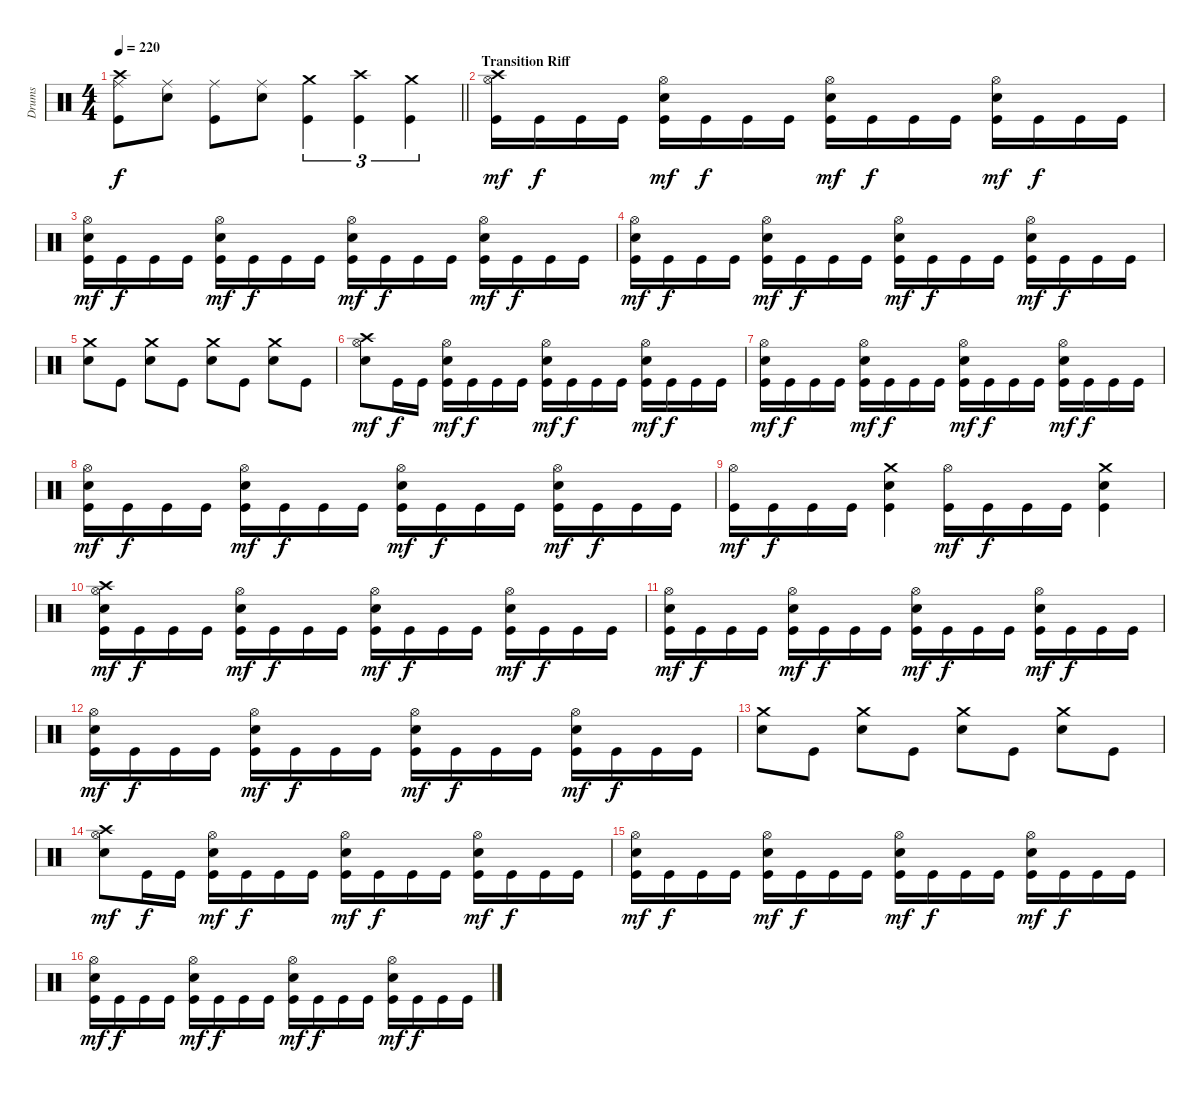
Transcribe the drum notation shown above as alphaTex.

\track ("Drums" "Drums") {instrument percussion}
\staff {score}
\articulation defaults
\ts (4 4)
\tempo 220
\clef neutral
\barLineRight lightlight
\ks c
("Crash high (hit)" "Ride (middle)" "Kick (hit)").8{dy f} ("Ride (middle)" "Electric Snare (hit)").8 ("Ride (middle)" "Kick (hit)").8 ("Ride (middle)" "Electric Snare (hit)").8 ("Crash medium (hit)" "Kick (hit)").4{tu (3 2)} ("Crash high (hit)" "Kick (hit)").4{tu (3 2)} ("Crash medium (hit)" "Kick (hit)").4{tu (3 2)} |
\section ("" "Transition Riff")
("Crash high (hit)" "Hi-Hat (open)" "Kick (hit)").16{dy mf} "Kick (hit)".16{dy f} "Kick (hit)".16 "Kick (hit)".16 ("Hi-Hat (open)" "Electric Snare (hit)" "Kick (hit)").16{dy mf} "Kick (hit)".16{dy f} "Kick (hit)".16 "Kick (hit)".16 ("Hi-Hat (open)" "Electric Snare (hit)" "Kick (hit)").16{dy mf} "Kick (hit)".16{dy f} "Kick (hit)".16 "Kick (hit)".16 ("Hi-Hat (open)" "Electric Snare (hit)" "Kick (hit)").16{dy mf} "Kick (hit)".16{dy f} "Kick (hit)".16 "Kick (hit)".16 |
("Hi-Hat (open)" "Electric Snare (hit)" "Kick (hit)").16{dy mf} "Kick (hit)".16{dy f} "Kick (hit)".16 "Kick (hit)".16 ("Hi-Hat (open)" "Electric Snare (hit)" "Kick (hit)").16{dy mf} "Kick (hit)".16{dy f} "Kick (hit)".16 "Kick (hit)".16 ("Hi-Hat (open)" "Electric Snare (hit)" "Kick (hit)").16{dy mf} "Kick (hit)".16{dy f} "Kick (hit)".16 "Kick (hit)".16 ("Hi-Hat (open)" "Electric Snare (hit)" "Kick (hit)").16{dy mf} "Kick (hit)".16{dy f} "Kick (hit)".16 "Kick (hit)".16 |
("Hi-Hat (open)" "Electric Snare (hit)" "Kick (hit)").16{dy mf} "Kick (hit)".16{dy f} "Kick (hit)".16 "Kick (hit)".16 ("Hi-Hat (open)" "Electric Snare (hit)" "Kick (hit)").16{dy mf} "Kick (hit)".16{dy f} "Kick (hit)".16 "Kick (hit)".16 ("Hi-Hat (open)" "Electric Snare (hit)" "Kick (hit)").16{dy mf} "Kick (hit)".16{dy f} "Kick (hit)".16 "Kick (hit)".16 ("Hi-Hat (open)" "Electric Snare (hit)" "Kick (hit)").16{dy mf} "Kick (hit)".16{dy f} "Kick (hit)".16 "Kick (hit)".16 |
("Crash medium (hit)" "Electric Snare (hit)").8 "Kick (hit)".8 ("Crash medium (hit)" "Electric Snare (hit)").8 "Kick (hit)".8 ("Crash medium (hit)" "Electric Snare (hit)").8 "Kick (hit)".8 ("Crash medium (hit)" "Electric Snare (hit)").8 "Kick (hit)".8 |
("Crash high (hit)" "Hi-Hat (open)" "Electric Snare (hit)").8{dy mf} "Kick (hit)".16{dy f} "Kick (hit)".16 ("Hi-Hat (open)" "Electric Snare (hit)" "Kick (hit)").16{dy mf} "Kick (hit)".16{dy f} "Kick (hit)".16 "Kick (hit)".16 ("Hi-Hat (open)" "Electric Snare (hit)" "Kick (hit)").16{dy mf} "Kick (hit)".16{dy f} "Kick (hit)".16 "Kick (hit)".16 ("Hi-Hat (open)" "Electric Snare (hit)" "Kick (hit)").16{dy mf} "Kick (hit)".16{dy f} "Kick (hit)".16 "Kick (hit)".16 |
("Hi-Hat (open)" "Electric Snare (hit)" "Kick (hit)").16{dy mf} "Kick (hit)".16{dy f} "Kick (hit)".16 "Kick (hit)".16 ("Hi-Hat (open)" "Electric Snare (hit)" "Kick (hit)").16{dy mf} "Kick (hit)".16{dy f} "Kick (hit)".16 "Kick (hit)".16 ("Hi-Hat (open)" "Electric Snare (hit)" "Kick (hit)").16{dy mf} "Kick (hit)".16{dy f} "Kick (hit)".16 "Kick (hit)".16 ("Hi-Hat (open)" "Electric Snare (hit)" "Kick (hit)").16{dy mf} "Kick (hit)".16{dy f} "Kick (hit)".16 "Kick (hit)".16 |
("Hi-Hat (open)" "Electric Snare (hit)" "Kick (hit)").16{dy mf} "Kick (hit)".16{dy f} "Kick (hit)".16 "Kick (hit)".16 ("Hi-Hat (open)" "Electric Snare (hit)" "Kick (hit)").16{dy mf} "Kick (hit)".16{dy f} "Kick (hit)".16 "Kick (hit)".16 ("Hi-Hat (open)" "Electric Snare (hit)" "Kick (hit)").16{dy mf} "Kick (hit)".16{dy f} "Kick (hit)".16 "Kick (hit)".16 ("Hi-Hat (open)" "Electric Snare (hit)" "Kick (hit)").16{dy mf} "Kick (hit)".16{dy f} "Kick (hit)".16 "Kick (hit)".16 |
("Hi-Hat (open)" "Kick (hit)").16{dy mf} "Kick (hit)".16{dy f} "Kick (hit)".16 "Kick (hit)".16 ("Crash medium (hit)" "Electric Snare (hit)" "Kick (hit)").4 ("Hi-Hat (open)" "Kick (hit)").16{dy mf} "Kick (hit)".16{dy f} "Kick (hit)".16 "Kick (hit)".16 ("Crash medium (hit)" "Electric Snare (hit)" "Kick (hit)").4 |
("Crash high (hit)" "Hi-Hat (open)" "Electric Snare (hit)" "Kick (hit)").16{dy mf} "Kick (hit)".16{dy f} "Kick (hit)".16 "Kick (hit)".16 ("Hi-Hat (open)" "Electric Snare (hit)" "Kick (hit)").16{dy mf} "Kick (hit)".16{dy f} "Kick (hit)".16 "Kick (hit)".16 ("Hi-Hat (open)" "Electric Snare (hit)" "Kick (hit)").16{dy mf} "Kick (hit)".16{dy f} "Kick (hit)".16 "Kick (hit)".16 ("Hi-Hat (open)" "Electric Snare (hit)" "Kick (hit)").16{dy mf} "Kick (hit)".16{dy f} "Kick (hit)".16 "Kick (hit)".16 |
("Hi-Hat (open)" "Electric Snare (hit)" "Kick (hit)").16{dy mf} "Kick (hit)".16{dy f} "Kick (hit)".16 "Kick (hit)".16 ("Hi-Hat (open)" "Electric Snare (hit)" "Kick (hit)").16{dy mf} "Kick (hit)".16{dy f} "Kick (hit)".16 "Kick (hit)".16 ("Hi-Hat (open)" "Electric Snare (hit)" "Kick (hit)").16{dy mf} "Kick (hit)".16{dy f} "Kick (hit)".16 "Kick (hit)".16 ("Hi-Hat (open)" "Electric Snare (hit)" "Kick (hit)").16{dy mf} "Kick (hit)".16{dy f} "Kick (hit)".16 "Kick (hit)".16 |
("Hi-Hat (open)" "Electric Snare (hit)" "Kick (hit)").16{dy mf} "Kick (hit)".16{dy f} "Kick (hit)".16 "Kick (hit)".16 ("Hi-Hat (open)" "Electric Snare (hit)" "Kick (hit)").16{dy mf} "Kick (hit)".16{dy f} "Kick (hit)".16 "Kick (hit)".16 ("Hi-Hat (open)" "Electric Snare (hit)" "Kick (hit)").16{dy mf} "Kick (hit)".16{dy f} "Kick (hit)".16 "Kick (hit)".16 ("Hi-Hat (open)" "Electric Snare (hit)" "Kick (hit)").16{dy mf} "Kick (hit)".16{dy f} "Kick (hit)".16 "Kick (hit)".16 |
("Crash medium (hit)" "Electric Snare (hit)").8 "Kick (hit)".8 ("Crash medium (hit)" "Electric Snare (hit)").8 "Kick (hit)".8 ("Crash medium (hit)" "Electric Snare (hit)").8 "Kick (hit)".8 ("Crash medium (hit)" "Electric Snare (hit)").8 "Kick (hit)".8 |
("Crash high (hit)" "Hi-Hat (open)" "Electric Snare (hit)").8{dy mf} "Kick (hit)".16{dy f} "Kick (hit)".16 ("Hi-Hat (open)" "Electric Snare (hit)" "Kick (hit)").16{dy mf} "Kick (hit)".16{dy f} "Kick (hit)".16 "Kick (hit)".16 ("Hi-Hat (open)" "Electric Snare (hit)" "Kick (hit)").16{dy mf} "Kick (hit)".16{dy f} "Kick (hit)".16 "Kick (hit)".16 ("Hi-Hat (open)" "Electric Snare (hit)" "Kick (hit)").16{dy mf} "Kick (hit)".16{dy f} "Kick (hit)".16 "Kick (hit)".16 |
("Hi-Hat (open)" "Electric Snare (hit)" "Kick (hit)").16{dy mf} "Kick (hit)".16{dy f} "Kick (hit)".16 "Kick (hit)".16 ("Hi-Hat (open)" "Electric Snare (hit)" "Kick (hit)").16{dy mf} "Kick (hit)".16{dy f} "Kick (hit)".16 "Kick (hit)".16 ("Hi-Hat (open)" "Electric Snare (hit)" "Kick (hit)").16{dy mf} "Kick (hit)".16{dy f} "Kick (hit)".16 "Kick (hit)".16 ("Hi-Hat (open)" "Electric Snare (hit)" "Kick (hit)").16{dy mf} "Kick (hit)".16{dy f} "Kick (hit)".16 "Kick (hit)".16 |
("Hi-Hat (open)" "Electric Snare (hit)" "Kick (hit)").16{dy mf} "Kick (hit)".16{dy f} "Kick (hit)".16 "Kick (hit)".16 ("Hi-Hat (open)" "Electric Snare (hit)" "Kick (hit)").16{dy mf} "Kick (hit)".16{dy f} "Kick (hit)".16 "Kick (hit)".16 ("Hi-Hat (open)" "Electric Snare (hit)" "Kick (hit)").16{dy mf} "Kick (hit)".16{dy f} "Kick (hit)".16 "Kick (hit)".16 ("Hi-Hat (open)" "Electric Snare (hit)" "Kick (hit)").16{dy mf} "Kick (hit)".16{dy f} "Kick (hit)".16 "Kick (hit)".16
